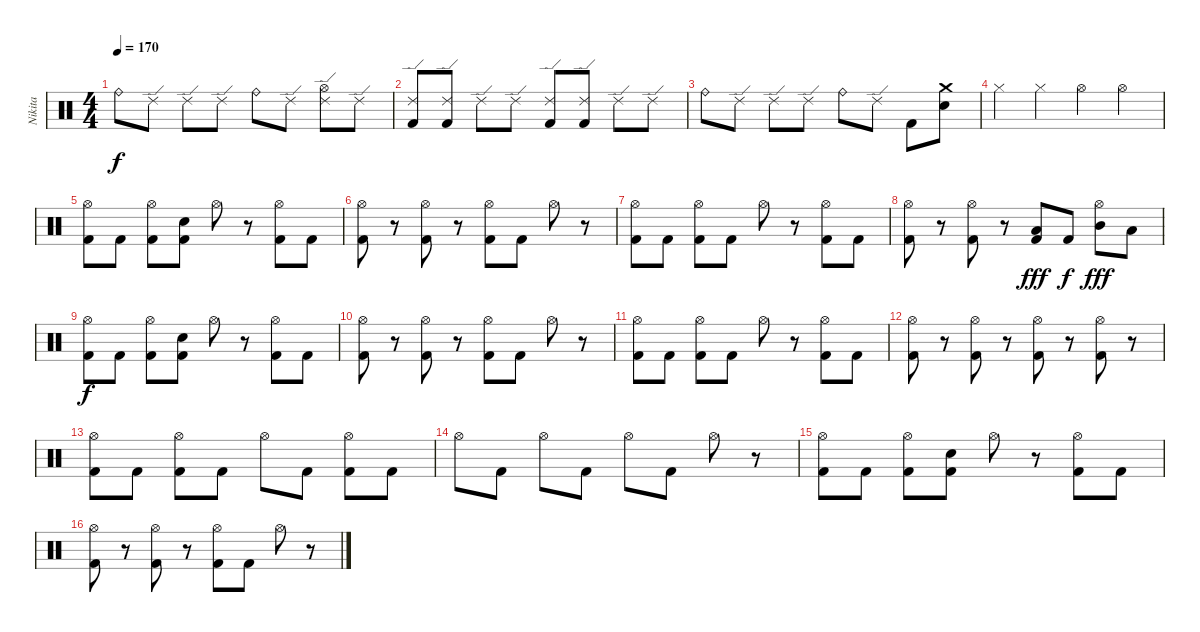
\track ("Nikita" "Nikita") {instrument percussion}
\staff {score}
\articulation defaults
\ts (4 4)
\tempo 170
\clef neutral
\ks c "Ride (bell)".8{dy f} "Ride (edge) 2".8 "Ride (edge) 2".8 "Ride (edge) 2".8 "Ride (bell)".8 "Ride (edge) 2".8
("Ride (edge) 2" "Hi-Hat (open)").8 "Ride (edge) 2".8 |
("Ride (edge) 2" "Kick (hit) 2").8 ("Ride (edge) 2" "Kick (hit) 2").8 "Ride (edge) 2".8 "Ride (edge) 2".8 ("Ride (edge) 2" "Kick (hit) 2").8 ("Ride (edge) 2" "Kick (hit) 2").8 "Ride (edge) 2".8 "Ride (edge) 2".8 |
"Ride (bell)".8 "Ride (edge) 2".8 "Ride (edge) 2".8 "Ride (edge) 2".8 "Ride (bell)".8 "Ride (edge) 2".8 "Kick (hit) 2".8 ("Crash medium (hit)" "Electric Snare (hit)").8 |
"Hi-Hat (closed)".4 "Hi-Hat (closed)".4 "Hi-Hat (open)".4 "Hi-Hat (open)".4 |
("Hi-Hat (open)" "Kick (hit) 2").8 "Kick (hit) 2".8 ("Hi-Hat (open)" "Kick (hit) 2").8 ("Electric Snare (hit)" "Kick (hit) 2").8 "Hi-Hat (open)".8 r.8 ("Hi-Hat (open)" "Kick (hit) 2").8 "Kick (hit) 2".8 |
("Hi-Hat (open)" "Kick (hit) 2").8 r.8 ("Hi-Hat (open)" "Kick (hit) 2").8 r.8 ("Hi-Hat (open)" "Kick (hit) 2").8 "Kick (hit) 2".8 "Hi-Hat (open)".8 r.8 |
("Hi-Hat (open)" "Kick (hit) 2").8 "Kick (hit) 2".8 ("Hi-Hat (open)" "Kick (hit) 2").8 "Kick (hit) 2".8 "Hi-Hat (open)".8 r.8 ("Hi-Hat (open)" "Kick (hit) 2").8 "Kick (hit) 2".8 |
("Hi-Hat (open)" "Kick (hit) 2").8 r.8 ("Hi-Hat (open)" "Kick (hit) 2").8 r.8 ("Low Tom (hit)" "Kick (hit) 2").8{dy fff} "Kick (hit) 2".8{dy f} ("Hi-Hat (open)" "Mid Tom (hit)").8{dy fff} "Low Tom (hit)".8 |
("Hi-Hat (open)" "Kick (hit) 2").8{dy f} "Kick (hit) 2".8 ("Hi-Hat (open)" "Kick (hit) 2").8 ("Electric Snare (hit)" "Kick (hit) 2").8 "Hi-Hat (open)".8 r.8 ("Hi-Hat (open)" "Kick (hit) 2").8 "Kick (hit) 2".8 |
("Hi-Hat (open)" "Kick (hit) 2").8 r.8 ("Hi-Hat (open)" "Kick (hit) 2").8 r.8 ("Hi-Hat (open)" "Kick (hit) 2").8 "Kick (hit) 2".8 "Hi-Hat (open)".8 r.8 |
("Hi-Hat (open)" "Kick (hit) 2").8 "Kick (hit) 2".8 ("Hi-Hat (open)" "Kick (hit) 2").8 "Kick (hit) 2".8 "Hi-Hat (open)".8 r.8 ("Hi-Hat (open)" "Kick (hit) 2").8 "Kick (hit) 2".8 |
("Hi-Hat (open)" "Kick (hit) 2").8 r.8 ("Hi-Hat (open)" "Kick (hit) 2").8 r.8 ("Hi-Hat (open)" "Kick (hit) 2").8 r.8 ("Hi-Hat (open)" "Kick (hit) 2").8 r.8 |
("Hi-Hat (open)" "Kick (hit) 2").8 "Kick (hit) 2".8 ("Hi-Hat (open)" "Kick (hit) 2").8 "Kick (hit) 2".8 "Hi-Hat (open)".8 "Kick (hit) 2".8 ("Hi-Hat (open)" "Kick (hit) 2").8 "Kick (hit) 2".8 |
"Hi-Hat (open)".8 "Kick (hit) 2".8 "Hi-Hat (open)".8 "Kick (hit) 2".8 "Hi-Hat (open)".8 "Kick (hit) 2".8 "Hi-Hat (open)".8 r.8 |
("Hi-Hat (open)" "Kick (hit) 2").8 "Kick (hit) 2".8 ("Hi-Hat (open)" "Kick (hit) 2").8 ("Electric Snare (hit)" "Kick (hit) 2").8 "Hi-Hat (open)".8 r.8 ("Hi-Hat (open)" "Kick (hit) 2").8 "Kick (hit) 2".8 |
("Hi-Hat (open)" "Kick (hit) 2").8 r.8 ("Hi-Hat (open)" "Kick (hit) 2").8 r.8 ("Hi-Hat (open)" "Kick (hit) 2").8 "Kick (hit) 2".8 "Hi-Hat (open)".8 r.8
